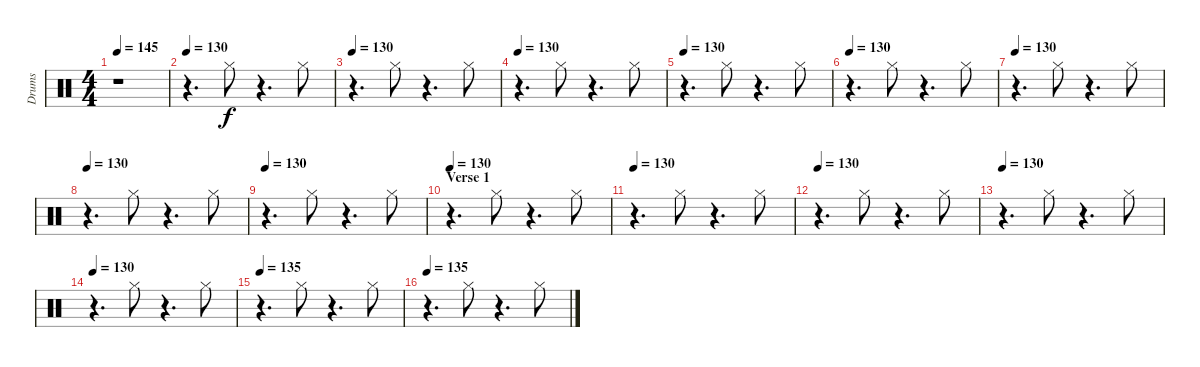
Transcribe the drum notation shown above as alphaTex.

\track ("Drums" "Drums") {instrument percussion}
\staff {score}
\articulation defaults
\ts (4 4)
\tempo 145
\clef neutral
\ks c
r.1{dy f} |
\tempo 130
r.4{d} "Hi-Hat (closed)".8 r.4{d} "Hi-Hat (closed)".8 |
\tempo 130
r.4{d} "Hi-Hat (closed)".8 r.4{d} "Hi-Hat (closed)".8 |
\tempo 130
r.4{d} "Hi-Hat (closed)".8 r.4{d} "Hi-Hat (closed)".8 |
\tempo 130
r.4{d} "Hi-Hat (closed)".8 r.4{d} "Hi-Hat (closed)".8 |
\tempo 130
r.4{d} "Hi-Hat (closed)".8 r.4{d} "Hi-Hat (closed)".8 |
\tempo 130
r.4{d} "Hi-Hat (closed)".8 r.4{d} "Hi-Hat (closed)".8 |
\tempo 130
r.4{d} "Hi-Hat (closed)".8 r.4{d} "Hi-Hat (closed)".8 |
\tempo 130
r.4{d} "Hi-Hat (closed)".8 r.4{d} "Hi-Hat (closed)".8 |
\section ("" "Verse 1")
\tempo 130
r.4{d} "Hi-Hat (closed)".8 r.4{d} "Hi-Hat (closed)".8 |
\tempo 130
r.4{d} "Hi-Hat (closed)".8 r.4{d} "Hi-Hat (closed)".8 |
\tempo 130
r.4{d} "Hi-Hat (closed)".8 r.4{d} "Hi-Hat (closed)".8 |
\tempo 130
r.4{d} "Hi-Hat (closed)".8 r.4{d} "Hi-Hat (closed)".8 |
\tempo 130
r.4{d} "Hi-Hat (closed)".8 r.4{d} "Hi-Hat (closed)".8 |
\tempo 135
r.4{d} "Hi-Hat (closed)".8 r.4{d} "Hi-Hat (closed)".8 |
\tempo 135
r.4{d} "Hi-Hat (closed)".8 r.4{d} "Hi-Hat (closed)".8
